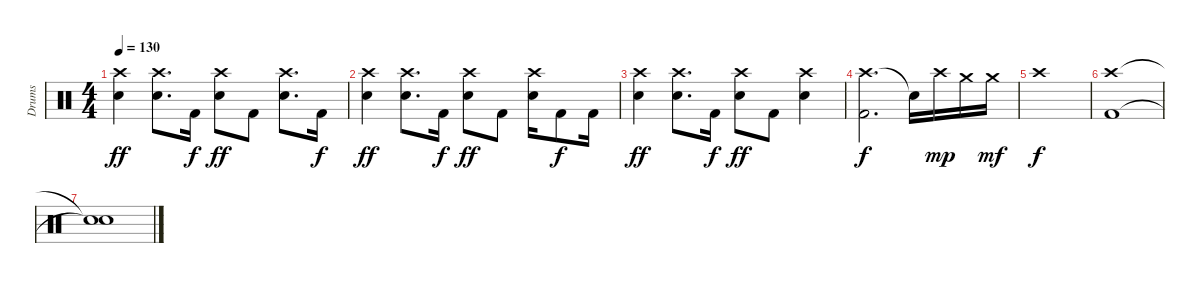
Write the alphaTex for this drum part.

\track ("Drums" "Drums") {instrument percussion}
\staff {score}
\articulation defaults
\ts (4 4)
\tempo 130
\clef neutral
\ks c
("Crash high (hit)" "Electric Snare (hit)").4{dy ff} ("Crash high (hit)" "Electric Snare (hit)").8{d} "Kick (hit) 2".16{dy f} ("Crash high (hit)" "Electric Snare (hit)").8{dy ff} "Kick (hit) 2".8 ("Crash high (hit)" "Electric Snare (hit)").8{d} "Kick (hit) 2".16{dy f} |
("Crash high (hit)" "Electric Snare (hit)").4{dy ff} ("Crash high (hit)" "Electric Snare (hit)").8{d} "Kick (hit) 2".16{dy f} ("Crash high (hit)" "Electric Snare (hit)").8{dy ff} "Kick (hit) 2".8 ("Crash high (hit)" "Electric Snare (hit)").16 "Kick (hit) 2".8{dy f} "Kick (hit) 2".16 |
("Crash high (hit)" "Electric Snare (hit)").4{dy ff} ("Crash high (hit)" "Electric Snare (hit)").8{d} "Kick (hit) 2".16{dy f} ("Crash high (hit)" "Electric Snare (hit)").8{dy ff} "Kick (hit) 2".8 ("Crash high (hit)" "Electric Snare (hit)").4 |
("Crash high (hit)" "Kick (hit) 2").2{d dy f} "Snare (hit)"{t}.16 "Crash high (hit)".16{dy mp} "Crash medium (hit)".16 "Crash medium (hit)".16{dy mf} |
"Crash high (hit)".1{dy f} |
("Crash high (hit)" "Kick (hit) 2").1 |
("Snare (hit)"{t} "Snare (hit)"{t}).1
